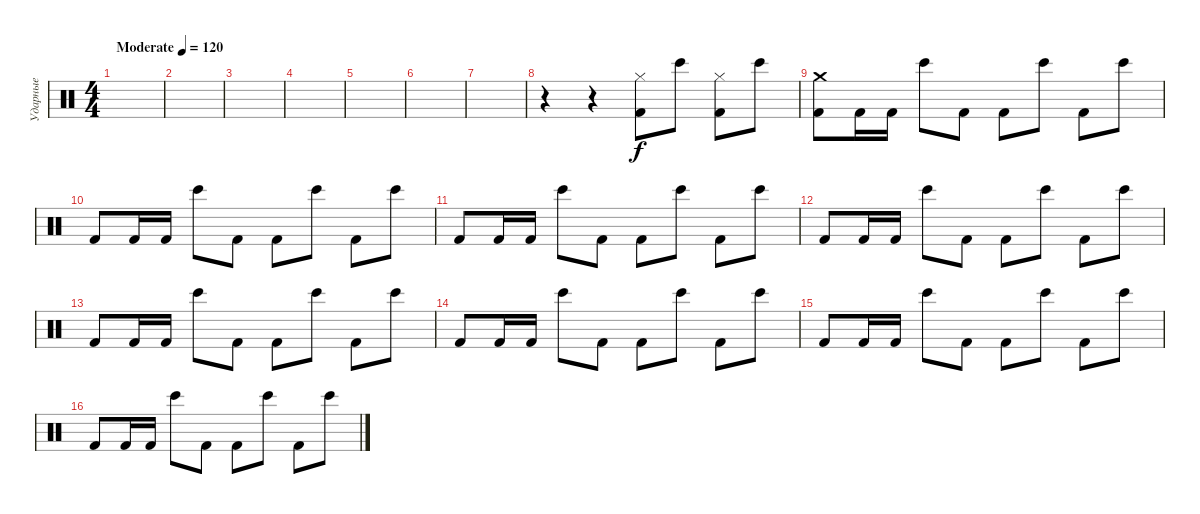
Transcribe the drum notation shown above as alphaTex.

\track ("Ударные" "Ударные") {instrument percussion}
\staff {score}
\articulation defaults
\ts (4 4)
\tempo (120 "Moderate")
\clef neutral
\ks c
|
|
|
|
|
|
|
r.4 r.4 ("Hi-Hat (closed)" "Kick (hit) 2").8 "Bongo High (hit)".8 ("Hi-Hat (closed)" "Kick (hit) 2").8 "Bongo High (hit)".8 |
("Kick (hit) 2" "Crash medium (hit)").8 "Kick (hit) 2".16 "Kick (hit) 2".16 "Bongo High (hit)".8 "Kick (hit) 2".8 "Kick (hit) 2".8 "Bongo High (hit)".8 "Kick (hit) 2".8 "Bongo High (hit)".8 |
"Kick (hit) 2".8 "Kick (hit) 2".16 "Kick (hit) 2".16 "Bongo High (hit)".8 "Kick (hit) 2".8 "Kick (hit) 2".8 "Bongo High (hit)".8 "Kick (hit) 2".8 "Bongo High (hit)".8 |
"Kick (hit) 2".8 "Kick (hit) 2".16 "Kick (hit) 2".16 "Bongo High (hit)".8 "Kick (hit) 2".8 "Kick (hit) 2".8 "Bongo High (hit)".8 "Kick (hit) 2".8 "Bongo High (hit)".8 |
"Kick (hit) 2".8 "Kick (hit) 2".16 "Kick (hit) 2".16 "Bongo High (hit)".8 "Kick (hit) 2".8 "Kick (hit) 2".8 "Bongo High (hit)".8 "Kick (hit) 2".8 "Bongo High (hit)".8 |
"Kick (hit) 2".8 "Kick (hit) 2".16 "Kick (hit) 2".16 "Bongo High (hit)".8 "Kick (hit) 2".8 "Kick (hit) 2".8 "Bongo High (hit)".8 "Kick (hit) 2".8 "Bongo High (hit)".8 |
"Kick (hit) 2".8 "Kick (hit) 2".16 "Kick (hit) 2".16 "Bongo High (hit)".8 "Kick (hit) 2".8 "Kick (hit) 2".8 "Bongo High (hit)".8 "Kick (hit) 2".8 "Bongo High (hit)".8 |
"Kick (hit) 2".8 "Kick (hit) 2".16 "Kick (hit) 2".16 "Bongo High (hit)".8 "Kick (hit) 2".8 "Kick (hit) 2".8 "Bongo High (hit)".8 "Kick (hit) 2".8 "Bongo High (hit)".8 |
"Kick (hit) 2".8 "Kick (hit) 2".16 "Kick (hit) 2".16 "Bongo High (hit)".8 "Kick (hit) 2".8 "Kick (hit) 2".8 "Bongo High (hit)".8 "Kick (hit) 2".8 "Bongo High (hit)".8
